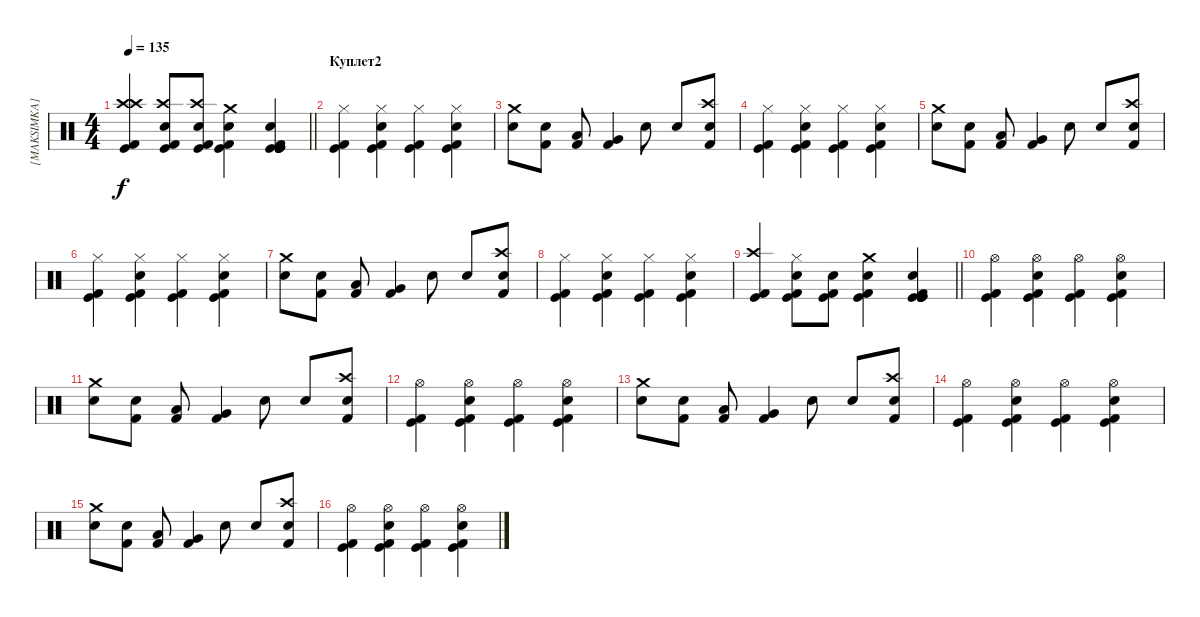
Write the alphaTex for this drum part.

\track ("[MAKSIMKA]" "[MAKSIMKA]") {instrument percussion}
\staff {score}
\articulation defaults
\ts (4 4)
\tempo 135
\clef neutral
\barLineRight lightlight
\ks c
("Kick (hit) 2" "Crash high (hit)" "Crash high (hit)" "Kick (hit)").4{dy f} ("Kick (hit) 2" "Snare (hit) 2" "Crash high (hit)" "Kick (hit)").8 ("Kick (hit) 2" "Snare (hit) 2" "Crash high (hit)" "Kick (hit)").8 ("Kick (hit) 2" "Snare (hit) 2" "Crash medium (hit)" "Kick (hit)").4 ("Kick (hit) 2" "Snare (hit) 2" "Kick (hit)" "Kick (hit)" "Kick (hit)" "Kick (hit)").4 |
\section ("" "Куплет2")
("Kick (hit) 2" "Hi-Hat (closed)" "Kick (hit)").4 ("Kick (hit) 2" "Snare (hit) 2" "Hi-Hat (closed)" "Kick (hit)").4 ("Kick (hit) 2" "Hi-Hat (closed)" "Kick (hit)").4 ("Kick (hit) 2" "Snare (hit) 2" "Hi-Hat (closed)" "Kick (hit)").4 |
("Crash medium (hit)" "Snare (hit) 2").8 ("Kick (hit) 2" "Snare (hit) 2").8 ("Kick (hit) 2" "Low Tom (hit)").8 ("Kick (hit) 2" "Very Low Tom (hit)").4 "Snare (hit) 2".8 "Snare (hit) 2".8 ("Kick (hit) 2" "Crash high (hit)" "Snare (hit) 2").8 |
("Kick (hit) 2" "Hi-Hat (closed)" "Kick (hit)").4 ("Kick (hit) 2" "Snare (hit) 2" "Hi-Hat (closed)" "Kick (hit)").4 ("Kick (hit) 2" "Hi-Hat (closed)" "Kick (hit)").4 ("Kick (hit) 2" "Snare (hit) 2" "Hi-Hat (closed)" "Kick (hit)").4 |
("Crash medium (hit)" "Snare (hit) 2").8 ("Kick (hit) 2" "Snare (hit) 2").8 ("Kick (hit) 2" "Low Tom (hit)").8 ("Kick (hit) 2" "Very Low Tom (hit)").4 "Snare (hit) 2".8 "Snare (hit) 2".8 ("Kick (hit) 2" "Crash high (hit)" "Snare (hit) 2").8 |
("Kick (hit) 2" "Hi-Hat (closed)" "Kick (hit)").4 ("Kick (hit) 2" "Snare (hit) 2" "Hi-Hat (closed)" "Kick (hit)").4 ("Kick (hit) 2" "Hi-Hat (closed)" "Kick (hit)").4 ("Kick (hit) 2" "Snare (hit) 2" "Hi-Hat (closed)" "Kick (hit)").4 |
("Crash medium (hit)" "Snare (hit) 2").8 ("Kick (hit) 2" "Snare (hit) 2").8 ("Kick (hit) 2" "Low Tom (hit)").8 ("Kick (hit) 2" "Very Low Tom (hit)").4 "Snare (hit) 2".8 "Snare (hit) 2".8 ("Kick (hit) 2" "Crash high (hit)" "Snare (hit) 2").8 |
("Kick (hit) 2" "Hi-Hat (closed)" "Kick (hit)").4 ("Kick (hit) 2" "Snare (hit) 2" "Hi-Hat (closed)" "Kick (hit)").4 ("Kick (hit) 2" "Hi-Hat (closed)" "Kick (hit)").4 ("Kick (hit) 2" "Snare (hit) 2" "Hi-Hat (closed)" "Kick (hit)").4 |
\barLineRight lightlight
("Kick (hit) 2" "Crash high (hit)" "Kick (hit)").4 ("Kick (hit) 2" "Snare (hit) 2" "Hi-Hat (closed)" "Kick (hit)").8 ("Kick (hit) 2" "Snare (hit) 2" "Kick (hit)").8 ("Kick (hit) 2" "Snare (hit) 2" "Crash medium (hit)" "Kick (hit)").4 ("Kick (hit) 2" "Snare (hit) 2" "Kick (hit)" "Kick (hit)" "Kick (hit)" "Kick (hit)").4 |
("Kick (hit) 2" "Hi-Hat (open)" "Kick (hit)").4 ("Kick (hit) 2" "Snare (hit) 2" "Hi-Hat (open)" "Kick (hit)").4 ("Kick (hit) 2" "Hi-Hat (open)" "Kick (hit)").4 ("Kick (hit) 2" "Snare (hit) 2" "Hi-Hat (open)" "Kick (hit)").4 |
("Crash medium (hit)" "Snare (hit) 2").8 ("Kick (hit) 2" "Snare (hit) 2").8 ("Kick (hit) 2" "Low Tom (hit)").8 ("Kick (hit) 2" "Very Low Tom (hit)").4 "Snare (hit) 2".8 "Snare (hit) 2".8 ("Kick (hit) 2" "Crash high (hit)" "Snare (hit) 2").8 |
("Kick (hit) 2" "Hi-Hat (open)" "Kick (hit)").4 ("Kick (hit) 2" "Snare (hit) 2" "Hi-Hat (open)" "Kick (hit)").4 ("Kick (hit) 2" "Hi-Hat (open)" "Kick (hit)").4 ("Kick (hit) 2" "Snare (hit) 2" "Hi-Hat (open)" "Kick (hit)").4 |
("Crash medium (hit)" "Snare (hit) 2").8 ("Kick (hit) 2" "Snare (hit) 2").8 ("Kick (hit) 2" "Low Tom (hit)").8 ("Kick (hit) 2" "Very Low Tom (hit)").4 "Snare (hit) 2".8 "Snare (hit) 2".8 ("Kick (hit) 2" "Crash high (hit)" "Snare (hit) 2").8 |
("Kick (hit) 2" "Hi-Hat (open)" "Kick (hit)").4 ("Kick (hit) 2" "Snare (hit) 2" "Hi-Hat (open)" "Kick (hit)").4 ("Kick (hit) 2" "Hi-Hat (open)" "Kick (hit)").4 ("Kick (hit) 2" "Snare (hit) 2" "Hi-Hat (open)" "Kick (hit)").4 |
("Crash medium (hit)" "Snare (hit) 2").8 ("Kick (hit) 2" "Snare (hit) 2").8 ("Kick (hit) 2" "Low Tom (hit)").8 ("Kick (hit) 2" "Very Low Tom (hit)").4 "Snare (hit) 2".8 "Snare (hit) 2".8 ("Kick (hit) 2" "Crash high (hit)" "Snare (hit) 2").8 |
("Kick (hit) 2" "Hi-Hat (open)" "Kick (hit)").4 ("Kick (hit) 2" "Snare (hit) 2" "Hi-Hat (open)" "Kick (hit)").4 ("Kick (hit) 2" "Hi-Hat (open)" "Kick (hit)").4 ("Kick (hit) 2" "Snare (hit) 2" "Hi-Hat (open)" "Kick (hit)").4
